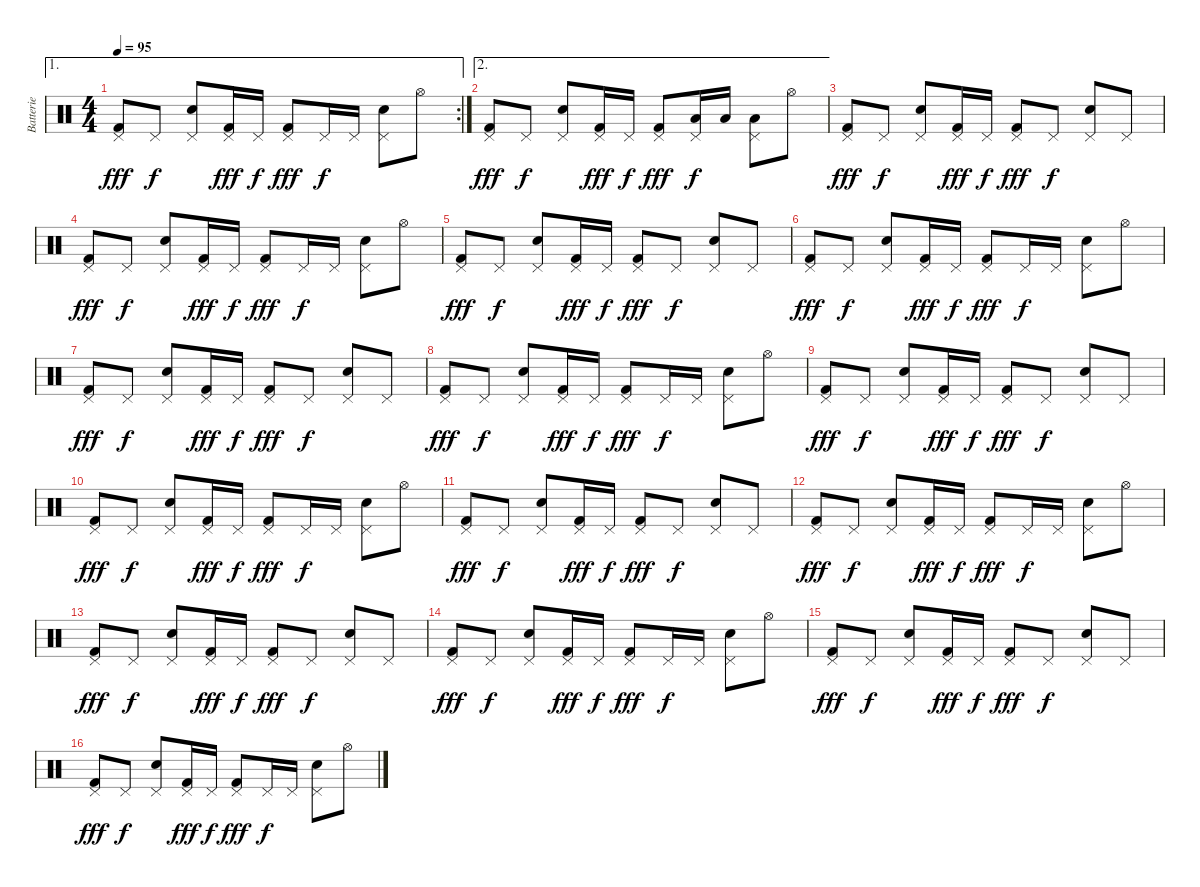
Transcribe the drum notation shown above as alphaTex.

\track ("Batterie" "Batterie") {instrument percussion}
\staff {score}
\articulation defaults
\ae 1
\rc 2
\ts (4 4)
\tempo 95
\clef neutral
\ks c
("Pedal Hi-Hat (hit)" "Kick (hit) 2").8{dy fff} "Pedal Hi-Hat (hit)".8{dy f} ("Pedal Hi-Hat (hit)" "Electric Snare (hit)").8 ("Pedal Hi-Hat (hit)" "Kick (hit) 2").16{dy fff} "Pedal Hi-Hat (hit)".16{dy f} ("Pedal Hi-Hat (hit)" "Kick (hit) 2").8{dy fff} "Pedal Hi-Hat (hit)".16{dy f} "Pedal Hi-Hat (hit)".16 ("Pedal Hi-Hat (hit)" "Electric Snare (hit)").8 "Hi-Hat (open)".8 |
\ae 2
("Pedal Hi-Hat (hit)" "Kick (hit) 2").8{dy fff} "Pedal Hi-Hat (hit)".8{dy f} ("Pedal Hi-Hat (hit)" "Electric Snare (hit)").8 ("Pedal Hi-Hat (hit)" "Kick (hit) 2").16{dy fff} "Pedal Hi-Hat (hit)".16{dy f} ("Pedal Hi-Hat (hit)" "Kick (hit) 2").8{dy fff} ("Pedal Hi-Hat (hit)" "Low Tom (hit)").16{dy f} "Low Tom (hit)".16 ("Pedal Hi-Hat (hit)" "Low Tom (hit)").8 "Hi-Hat (open)".8 |
("Pedal Hi-Hat (hit)" "Kick (hit) 2").8{dy fff} "Pedal Hi-Hat (hit)".8{dy f} ("Pedal Hi-Hat (hit)" "Electric Snare (hit)").8 ("Pedal Hi-Hat (hit)" "Kick (hit) 2").16{dy fff} "Pedal Hi-Hat (hit)".16{dy f} ("Pedal Hi-Hat (hit)" "Kick (hit) 2").8{dy fff} "Pedal Hi-Hat (hit)".8{dy f} ("Pedal Hi-Hat (hit)" "Electric Snare (hit)").8 "Pedal Hi-Hat (hit)".8 |
("Pedal Hi-Hat (hit)" "Kick (hit) 2").8{dy fff} "Pedal Hi-Hat (hit)".8{dy f} ("Pedal Hi-Hat (hit)" "Electric Snare (hit)").8 ("Pedal Hi-Hat (hit)" "Kick (hit) 2").16{dy fff} "Pedal Hi-Hat (hit)".16{dy f} ("Pedal Hi-Hat (hit)" "Kick (hit) 2").8{dy fff} "Pedal Hi-Hat (hit)".16{dy f} "Pedal Hi-Hat (hit)".16 ("Pedal Hi-Hat (hit)" "Electric Snare (hit)").8 "Hi-Hat (open)".8 |
("Pedal Hi-Hat (hit)" "Kick (hit) 2").8{dy fff} "Pedal Hi-Hat (hit)".8{dy f} ("Pedal Hi-Hat (hit)" "Electric Snare (hit)").8 ("Pedal Hi-Hat (hit)" "Kick (hit) 2").16{dy fff} "Pedal Hi-Hat (hit)".16{dy f} ("Pedal Hi-Hat (hit)" "Kick (hit) 2").8{dy fff} "Pedal Hi-Hat (hit)".8{dy f} ("Pedal Hi-Hat (hit)" "Electric Snare (hit)").8 "Pedal Hi-Hat (hit)".8 |
("Pedal Hi-Hat (hit)" "Kick (hit) 2").8{dy fff} "Pedal Hi-Hat (hit)".8{dy f} ("Pedal Hi-Hat (hit)" "Electric Snare (hit)").8 ("Pedal Hi-Hat (hit)" "Kick (hit) 2").16{dy fff} "Pedal Hi-Hat (hit)".16{dy f} ("Pedal Hi-Hat (hit)" "Kick (hit) 2").8{dy fff} "Pedal Hi-Hat (hit)".16{dy f} "Pedal Hi-Hat (hit)".16 ("Pedal Hi-Hat (hit)" "Electric Snare (hit)").8 "Hi-Hat (open)".8 |
("Pedal Hi-Hat (hit)" "Kick (hit) 2").8{dy fff} "Pedal Hi-Hat (hit)".8{dy f} ("Pedal Hi-Hat (hit)" "Electric Snare (hit)").8 ("Pedal Hi-Hat (hit)" "Kick (hit) 2").16{dy fff} "Pedal Hi-Hat (hit)".16{dy f} ("Pedal Hi-Hat (hit)" "Kick (hit) 2").8{dy fff} "Pedal Hi-Hat (hit)".8{dy f} ("Pedal Hi-Hat (hit)" "Electric Snare (hit)").8 "Pedal Hi-Hat (hit)".8 |
("Pedal Hi-Hat (hit)" "Kick (hit) 2").8{dy fff} "Pedal Hi-Hat (hit)".8{dy f} ("Pedal Hi-Hat (hit)" "Electric Snare (hit)").8 ("Pedal Hi-Hat (hit)" "Kick (hit) 2").16{dy fff} "Pedal Hi-Hat (hit)".16{dy f} ("Pedal Hi-Hat (hit)" "Kick (hit) 2").8{dy fff} "Pedal Hi-Hat (hit)".16{dy f} "Pedal Hi-Hat (hit)".16 ("Pedal Hi-Hat (hit)" "Electric Snare (hit)").8 "Hi-Hat (open)".8 |
("Pedal Hi-Hat (hit)" "Kick (hit) 2").8{dy fff} "Pedal Hi-Hat (hit)".8{dy f} ("Pedal Hi-Hat (hit)" "Electric Snare (hit)").8 ("Pedal Hi-Hat (hit)" "Kick (hit) 2").16{dy fff} "Pedal Hi-Hat (hit)".16{dy f} ("Pedal Hi-Hat (hit)" "Kick (hit) 2").8{dy fff} "Pedal Hi-Hat (hit)".8{dy f} ("Pedal Hi-Hat (hit)" "Electric Snare (hit)").8 "Pedal Hi-Hat (hit)".8 |
("Pedal Hi-Hat (hit)" "Kick (hit) 2").8{dy fff} "Pedal Hi-Hat (hit)".8{dy f} ("Pedal Hi-Hat (hit)" "Electric Snare (hit)").8 ("Pedal Hi-Hat (hit)" "Kick (hit) 2").16{dy fff} "Pedal Hi-Hat (hit)".16{dy f} ("Pedal Hi-Hat (hit)" "Kick (hit) 2").8{dy fff} "Pedal Hi-Hat (hit)".16{dy f} "Pedal Hi-Hat (hit)".16 ("Pedal Hi-Hat (hit)" "Electric Snare (hit)").8 "Hi-Hat (open)".8 |
("Pedal Hi-Hat (hit)" "Kick (hit) 2").8{dy fff} "Pedal Hi-Hat (hit)".8{dy f} ("Pedal Hi-Hat (hit)" "Electric Snare (hit)").8 ("Pedal Hi-Hat (hit)" "Kick (hit) 2").16{dy fff} "Pedal Hi-Hat (hit)".16{dy f} ("Pedal Hi-Hat (hit)" "Kick (hit) 2").8{dy fff} "Pedal Hi-Hat (hit)".8{dy f} ("Pedal Hi-Hat (hit)" "Electric Snare (hit)").8 "Pedal Hi-Hat (hit)".8 |
("Pedal Hi-Hat (hit)" "Kick (hit) 2").8{dy fff} "Pedal Hi-Hat (hit)".8{dy f} ("Pedal Hi-Hat (hit)" "Electric Snare (hit)").8 ("Pedal Hi-Hat (hit)" "Kick (hit) 2").16{dy fff} "Pedal Hi-Hat (hit)".16{dy f} ("Pedal Hi-Hat (hit)" "Kick (hit) 2").8{dy fff} "Pedal Hi-Hat (hit)".16{dy f} "Pedal Hi-Hat (hit)".16 ("Pedal Hi-Hat (hit)" "Electric Snare (hit)").8 "Hi-Hat (open)".8 |
("Pedal Hi-Hat (hit)" "Kick (hit) 2").8{dy fff} "Pedal Hi-Hat (hit)".8{dy f} ("Pedal Hi-Hat (hit)" "Electric Snare (hit)").8 ("Pedal Hi-Hat (hit)" "Kick (hit) 2").16{dy fff} "Pedal Hi-Hat (hit)".16{dy f} ("Pedal Hi-Hat (hit)" "Kick (hit) 2").8{dy fff} "Pedal Hi-Hat (hit)".8{dy f} ("Pedal Hi-Hat (hit)" "Electric Snare (hit)").8 "Pedal Hi-Hat (hit)".8 |
("Pedal Hi-Hat (hit)" "Kick (hit) 2").8{dy fff} "Pedal Hi-Hat (hit)".8{dy f} ("Pedal Hi-Hat (hit)" "Electric Snare (hit)").8 ("Pedal Hi-Hat (hit)" "Kick (hit) 2").16{dy fff} "Pedal Hi-Hat (hit)".16{dy f} ("Pedal Hi-Hat (hit)" "Kick (hit) 2").8{dy fff} "Pedal Hi-Hat (hit)".16{dy f} "Pedal Hi-Hat (hit)".16 ("Pedal Hi-Hat (hit)" "Electric Snare (hit)").8 "Hi-Hat (open)".8 |
("Pedal Hi-Hat (hit)" "Kick (hit) 2").8{dy fff} "Pedal Hi-Hat (hit)".8{dy f} ("Pedal Hi-Hat (hit)" "Electric Snare (hit)").8 ("Pedal Hi-Hat (hit)" "Kick (hit) 2").16{dy fff} "Pedal Hi-Hat (hit)".16{dy f} ("Pedal Hi-Hat (hit)" "Kick (hit) 2").8{dy fff} "Pedal Hi-Hat (hit)".8{dy f} ("Pedal Hi-Hat (hit)" "Electric Snare (hit)").8 "Pedal Hi-Hat (hit)".8 |
("Pedal Hi-Hat (hit)" "Kick (hit) 2").8{dy fff} "Pedal Hi-Hat (hit)".8{dy f} ("Pedal Hi-Hat (hit)" "Electric Snare (hit)").8 ("Pedal Hi-Hat (hit)" "Kick (hit) 2").16{dy fff} "Pedal Hi-Hat (hit)".16{dy f} ("Pedal Hi-Hat (hit)" "Kick (hit) 2").8{dy fff} "Pedal Hi-Hat (hit)".16{dy f} "Pedal Hi-Hat (hit)".16 ("Pedal Hi-Hat (hit)" "Electric Snare (hit)").8 "Hi-Hat (open)".8
